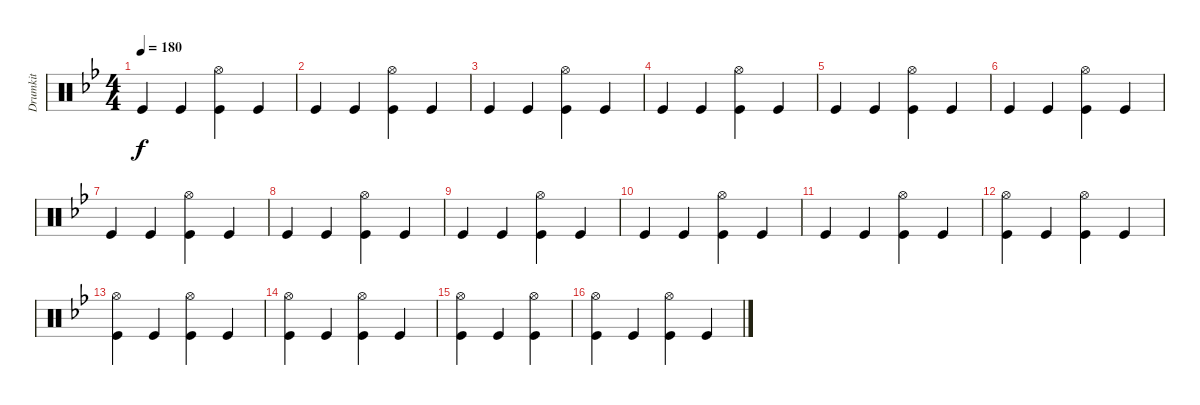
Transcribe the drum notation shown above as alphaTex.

\track ("Drumkit" "Drumkit") {instrument percussion}
\staff {score}
\articulation defaults
\ts (4 4)
\tempo 180
\clef neutral
\ks bb "Kick (hit)".4{dy f} "Kick (hit)".4
("Hi-Hat (open)" "Kick (hit)").4 "Kick (hit)".4 |
"Kick (hit)".4 "Kick (hit)".4 ("Hi-Hat (open)" "Kick (hit)").4 "Kick (hit)".4 |
"Kick (hit)".4 "Kick (hit)".4 ("Hi-Hat (open)" "Kick (hit)").4 "Kick (hit)".4 |
"Kick (hit)".4 "Kick (hit)".4 ("Hi-Hat (open)" "Kick (hit)").4 "Kick (hit)".4 |
"Kick (hit)".4 "Kick (hit)".4 ("Hi-Hat (open)" "Kick (hit)").4 "Kick (hit)".4 |
"Kick (hit)".4 "Kick (hit)".4 ("Hi-Hat (open)" "Kick (hit)").4 "Kick (hit)".4 |
"Kick (hit)".4 "Kick (hit)".4 ("Hi-Hat (open)" "Kick (hit)").4 "Kick (hit)".4 |
"Kick (hit)".4 "Kick (hit)".4 ("Hi-Hat (open)" "Kick (hit)").4 "Kick (hit)".4 |
"Kick (hit)".4 "Kick (hit)".4 ("Hi-Hat (open)" "Kick (hit)").4 "Kick (hit)".4 |
"Kick (hit)".4 "Kick (hit)".4 ("Hi-Hat (open)" "Kick (hit)").4 "Kick (hit)".4 |
"Kick (hit)".4 "Kick (hit)".4 ("Hi-Hat (open)" "Kick (hit)").4 "Kick (hit)".4 |
("Hi-Hat (open)" "Kick (hit)").4 "Kick (hit)".4 ("Hi-Hat (open)" "Kick (hit)").4 "Kick (hit)".4 |
("Hi-Hat (open)" "Kick (hit)").4 "Kick (hit)".4 ("Hi-Hat (open)" "Kick (hit)").4 "Kick (hit)".4 |
("Hi-Hat (open)" "Kick (hit)").4 "Kick (hit)".4 ("Hi-Hat (open)" "Kick (hit)").4 "Kick (hit)".4 |
("Hi-Hat (open)" "Kick (hit)").4 "Kick (hit)".4 ("Hi-Hat (open)" "Kick (hit)").4 |
("Hi-Hat (open)" "Kick (hit)").4 "Kick (hit)".4 ("Hi-Hat (open)" "Kick (hit)").4 "Kick (hit)".4
